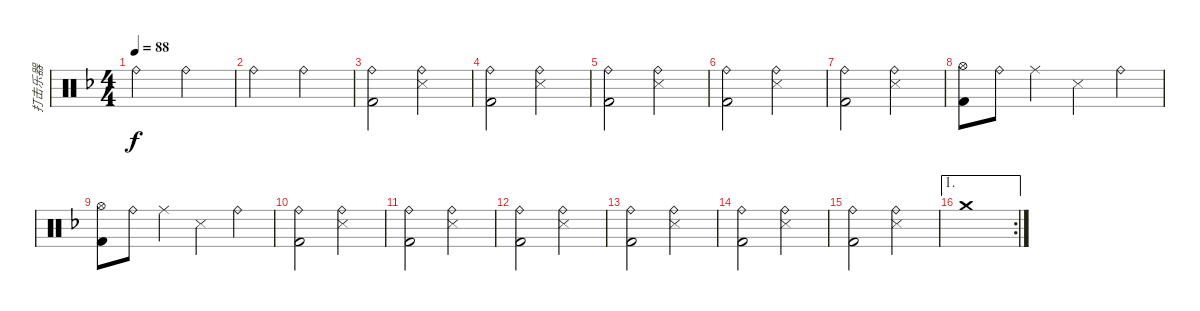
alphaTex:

\track ("打击乐器" "打击乐器") {instrument percussion}
\staff {score}
\articulation defaults
\ts (4 4)
\tempo 88
\clef neutral
\ks f "Ride (bell)".2{dy f} "Ride (bell)".2
|
"Ride (bell)".2 "Ride (bell)".2 |
("Ride (bell)" "Kick (hit) 2").2 ("Ride (bell)" "Snare (side stick) 3").2 |
("Ride (bell)" "Kick (hit) 2").2 ("Ride (bell)" "Snare (side stick) 3").2 |
("Ride (bell)" "Kick (hit) 2").2 ("Ride (bell)" "Snare (side stick) 3").2 |
("Ride (bell)" "Kick (hit) 2").2 ("Ride (bell)" "Snare (side stick) 3").2 |
("Ride (bell)" "Kick (hit) 2").2 ("Ride (bell)" "Snare (side stick) 3").2 |
("Hi-Hat (open)" "Kick (hit) 2").8 "Ride (bell)".8 "Ride (middle)".4 "Snare (side stick) 3".4 "Ride (bell)".4 |
("Hi-Hat (open)" "Kick (hit) 2").8 "Ride (bell)".8 "Ride (middle)".4 "Snare (side stick) 3".4 "Ride (bell)".4 |
("Ride (bell)" "Kick (hit) 2").2 ("Ride (bell)" "Snare (side stick) 3").2 |
("Ride (bell)" "Kick (hit) 2").2 ("Ride (bell)" "Snare (side stick) 3").2 |
("Ride (bell)" "Kick (hit) 2").2 ("Ride (bell)" "Snare (side stick) 3").2 |
("Ride (bell)" "Kick (hit) 2").2 ("Ride (bell)" "Snare (side stick) 3").2 |
("Ride (bell)" "Kick (hit) 2").2 ("Ride (bell)" "Snare (side stick) 3").2 |
("Ride (bell)" "Kick (hit) 2").2 ("Ride (bell)" "Snare (side stick) 3").2 |
\ae 1
\rc 2 "Crash medium (hit)".1
